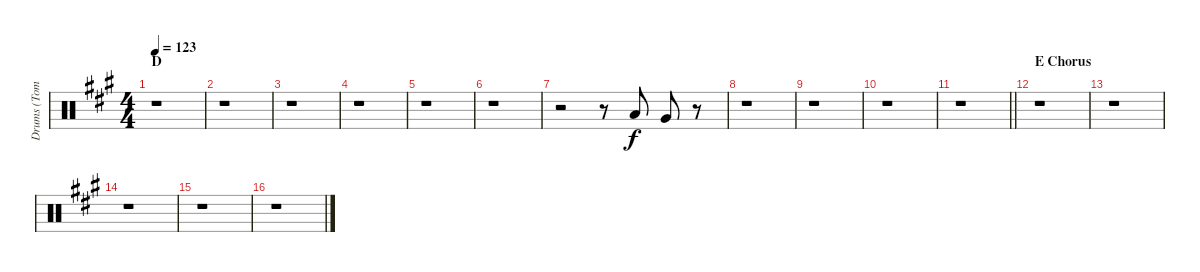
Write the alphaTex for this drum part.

\track ("Drums (Toms" "Drums (Tom") {instrument percussion}
\staff {score}
\articulation defaults
\ts (4 4)
\section ("" "D")
\tempo 123
\clef neutral
\ks a
r.1{dy f} |
r.1 |
r.1 |
r.1 |
r.1 |
r.1 |
r.2 r.8 "Low Tom (hit)".8 "Very Low Tom (hit)".8 r.8 |
r.1 |
r.1 |
r.1 |
\barLineRight lightlight
r.1 |
\section ("" "E Chorus")
r.1 |
r.1 |
r.1 |
r.1 |
r.1
